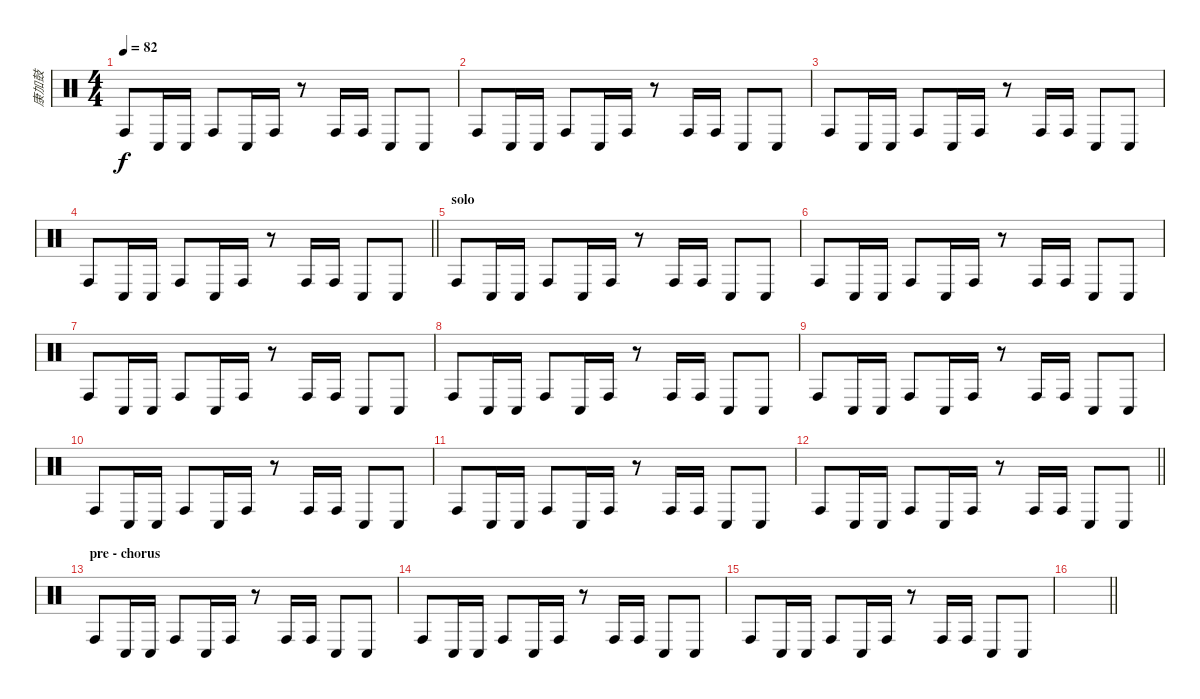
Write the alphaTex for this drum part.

\track ("康加鼓" "康加鼓") {instrument percussion}
\staff {score}
\articulation defaults
\ts (4 4)
\tempo 82
\clef neutral
\ks c "Conga high (hit)".8{dy f} "Conga low (hit)".16 "Conga low (hit)".16 "Conga high (hit)".8 "Conga low (hit)".16 "Conga high (hit)".16
r.8 "Conga high (hit)".16 "Conga high (hit)".16 "Conga low (hit)".8 "Conga low (hit)".8 |
"Conga high (hit)".8 "Conga low (hit)".16 "Conga low (hit)".16 "Conga high (hit)".8 "Conga low (hit)".16 "Conga high (hit)".16 r.8 "Conga high (hit)".16 "Conga high (hit)".16 "Conga low (hit)".8 "Conga low (hit)".8 |
"Conga high (hit)".8 "Conga low (hit)".16 "Conga low (hit)".16 "Conga high (hit)".8 "Conga low (hit)".16 "Conga high (hit)".16 r.8 "Conga high (hit)".16 "Conga high (hit)".16 "Conga low (hit)".8 "Conga low (hit)".8 |
\barLineRight lightlight "Conga high (hit)".8 "Conga low (hit)".16 "Conga low (hit)".16 "Conga high (hit)".8 "Conga low (hit)".16 "Conga high (hit)".16
r.8 "Conga high (hit)".16 "Conga high (hit)".16 "Conga low (hit)".8 "Conga low (hit)".8 |
\section ("" "solo")
"Conga high (hit)".8 "Conga low (hit)".16 "Conga low (hit)".16 "Conga high (hit)".8 "Conga low (hit)".16 "Conga high (hit)".16 r.8 "Conga high (hit)".16 "Conga high (hit)".16 "Conga low (hit)".8 "Conga low (hit)".8 |
"Conga high (hit)".8 "Conga low (hit)".16 "Conga low (hit)".16 "Conga high (hit)".8 "Conga low (hit)".16 "Conga high (hit)".16 r.8 "Conga high (hit)".16 "Conga high (hit)".16 "Conga low (hit)".8 "Conga low (hit)".8 |
"Conga high (hit)".8 "Conga low (hit)".16 "Conga low (hit)".16 "Conga high (hit)".8 "Conga low (hit)".16 "Conga high (hit)".16 r.8 "Conga high (hit)".16 "Conga high (hit)".16 "Conga low (hit)".8 "Conga low (hit)".8 |
"Conga high (hit)".8 "Conga low (hit)".16 "Conga low (hit)".16 "Conga high (hit)".8 "Conga low (hit)".16 "Conga high (hit)".16 r.8 "Conga high (hit)".16 "Conga high (hit)".16 "Conga low (hit)".8 "Conga low (hit)".8 |
"Conga high (hit)".8 "Conga low (hit)".16 "Conga low (hit)".16 "Conga high (hit)".8 "Conga low (hit)".16 "Conga high (hit)".16 r.8 "Conga high (hit)".16 "Conga high (hit)".16 "Conga low (hit)".8 "Conga low (hit)".8 |
"Conga high (hit)".8 "Conga low (hit)".16 "Conga low (hit)".16 "Conga high (hit)".8 "Conga low (hit)".16 "Conga high (hit)".16 r.8 "Conga high (hit)".16 "Conga high (hit)".16 "Conga low (hit)".8 "Conga low (hit)".8 |
"Conga high (hit)".8 "Conga low (hit)".16 "Conga low (hit)".16 "Conga high (hit)".8 "Conga low (hit)".16 "Conga high (hit)".16 r.8 "Conga high (hit)".16 "Conga high (hit)".16 "Conga low (hit)".8 "Conga low (hit)".8 |
\barLineRight lightlight "Conga high (hit)".8 "Conga low (hit)".16 "Conga low (hit)".16 "Conga high (hit)".8 "Conga low (hit)".16 "Conga high (hit)".16
r.8 "Conga high (hit)".16 "Conga high (hit)".16 "Conga low (hit)".8 "Conga low (hit)".8 |
\section ("" "pre - chorus")
"Conga high (hit)".8 "Conga low (hit)".16 "Conga low (hit)".16 "Conga high (hit)".8 "Conga low (hit)".16 "Conga high (hit)".16 r.8 "Conga high (hit)".16 "Conga high (hit)".16 "Conga low (hit)".8 "Conga low (hit)".8 |
"Conga high (hit)".8 "Conga low (hit)".16 "Conga low (hit)".16 "Conga high (hit)".8 "Conga low (hit)".16 "Conga high (hit)".16 r.8 "Conga high (hit)".16 "Conga high (hit)".16 "Conga low (hit)".8 "Conga low (hit)".8 |
"Conga high (hit)".8 "Conga low (hit)".16 "Conga low (hit)".16 "Conga high (hit)".8 "Conga low (hit)".16 "Conga high (hit)".16 r.8 "Conga high (hit)".16 "Conga high (hit)".16 "Conga low (hit)".8 "Conga low (hit)".8 |
\barLineRight lightlight
